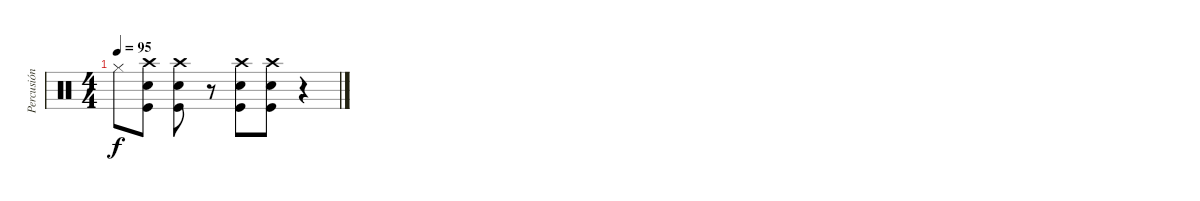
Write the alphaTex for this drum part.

\track ("Percusión" "Percusión") {instrument percussion}
\staff {score}
\articulation defaults
\ts (4 4)
\tempo 95
\clef neutral
\ks c "Hi-Hat (closed)".8{dy f}
("Crash high (hit)" "Snare (hit) 2" "Kick (hit)").8 ("Crash high (hit)" "Snare (hit) 2" "Kick (hit)").8 r.8 ("Crash high (hit)" "Snare (hit) 2" "Kick (hit)").8 ("Crash high (hit)" "Snare (hit) 2" "Kick (hit)").8 r.4
